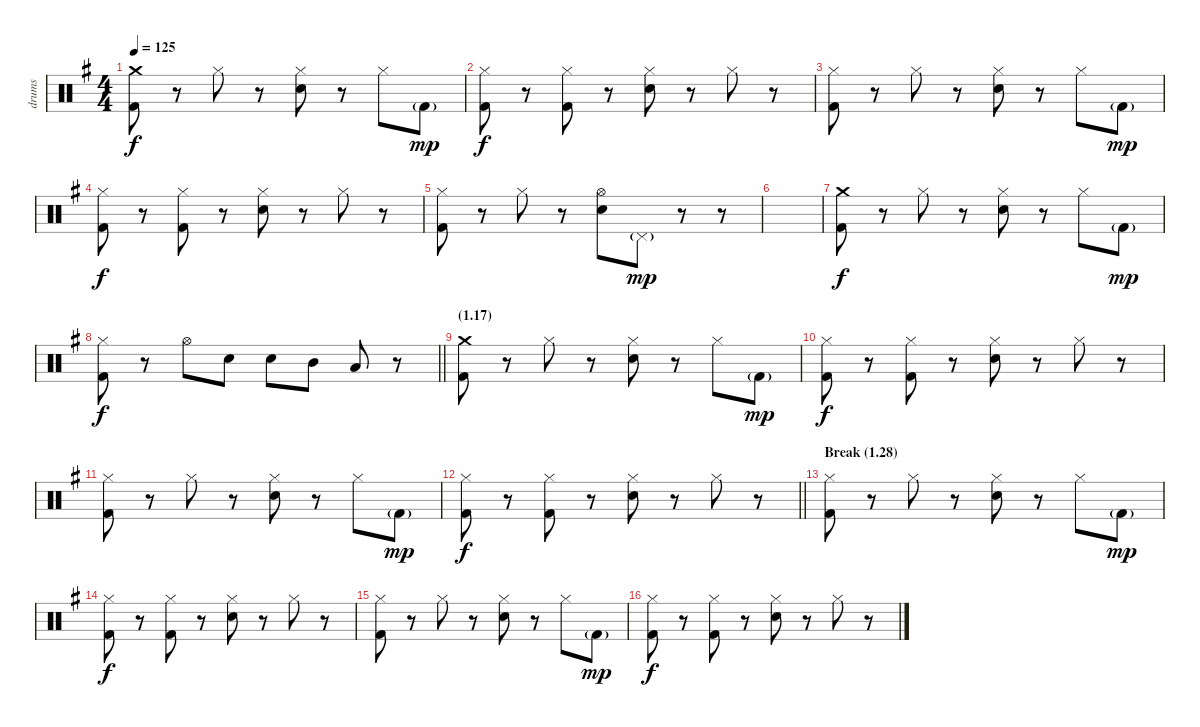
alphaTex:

\track ("drums" "drums") {instrument percussion}
\staff {score}
\articulation defaults
\ts (4 4)
\tempo 125
\clef neutral
\ks g
("Crash medium (hit)" "Kick (hit) 2").8{dy f} r.8 "Hi-Hat (closed)".8 r.8 ("Hi-Hat (closed)" "Electric Snare (hit)").8 r.8 "Hi-Hat (closed)".8 "Kick (hit) 2"{g}.8{dy mp} |
("Hi-Hat (closed)" "Kick (hit) 2").8{dy f} r.8 ("Hi-Hat (closed)" "Kick (hit) 2").8 r.8 ("Hi-Hat (closed)" "Electric Snare (hit)").8 r.8 "Hi-Hat (closed)".8 r.8 |
("Hi-Hat (closed)" "Kick (hit) 2").8 r.8 "Hi-Hat (closed)".8 r.8 ("Hi-Hat (closed)" "Electric Snare (hit)").8 r.8 "Hi-Hat (closed)".8 "Kick (hit) 2"{g}.8{dy mp} |
("Hi-Hat (closed)" "Kick (hit) 2").8{dy f} r.8 ("Hi-Hat (closed)" "Kick (hit) 2").8 r.8 ("Hi-Hat (closed)" "Electric Snare (hit)").8 r.8 "Hi-Hat (closed)".8 r.8 |
("Hi-Hat (closed)" "Kick (hit) 2").8 r.8 "Hi-Hat (closed)".8 r.8 ("Hi-Hat (open)" "Electric Snare (hit)").8 "Pedal Hi-Hat (hit)"{g}.8{dy mp} r.8 r.8 |
|
("Crash medium (hit)" "Kick (hit) 2").8{dy f} r.8 "Hi-Hat (closed)".8 r.8 ("Hi-Hat (closed)" "Electric Snare (hit)").8 r.8 "Hi-Hat (closed)".8 "Kick (hit) 2"{g}.8{dy mp} |
\barLineRight lightlight
("Hi-Hat (closed)" "Kick (hit) 2").8{dy f} r.8 "Hi-Hat (open)".8 "Electric Snare (hit)".8 "Electric Snare (hit)".8 "Mid Tom (hit)".8 "Low Tom (hit)".8 r.8 |
\section ("" "(1.17)")
("Crash medium (hit)" "Kick (hit) 2").8 r.8 "Hi-Hat (closed)".8 r.8 ("Hi-Hat (closed)" "Electric Snare (hit)").8 r.8 "Hi-Hat (closed)".8 "Kick (hit) 2"{g}.8{dy mp} |
("Hi-Hat (closed)" "Kick (hit) 2").8{dy f} r.8 ("Hi-Hat (closed)" "Kick (hit) 2").8 r.8 ("Hi-Hat (closed)" "Electric Snare (hit)").8 r.8 "Hi-Hat (closed)".8 r.8 |
("Hi-Hat (closed)" "Kick (hit) 2").8 r.8 "Hi-Hat (closed)".8 r.8 ("Hi-Hat (closed)" "Electric Snare (hit)").8 r.8 "Hi-Hat (closed)".8 "Kick (hit) 2"{g}.8{dy mp} |
\barLineRight lightlight
("Hi-Hat (closed)" "Kick (hit) 2").8{dy f} r.8 ("Hi-Hat (closed)" "Kick (hit) 2").8 r.8 ("Hi-Hat (closed)" "Electric Snare (hit)").8 r.8 "Hi-Hat (closed)".8 r.8 |
\section ("" "Break (1.28)")
("Hi-Hat (closed)" "Kick (hit) 2").8 r.8 "Hi-Hat (closed)".8 r.8 ("Hi-Hat (closed)" "Electric Snare (hit)").8 r.8 "Hi-Hat (closed)".8 "Kick (hit) 2"{g}.8{dy mp} |
("Hi-Hat (closed)" "Kick (hit) 2").8{dy f} r.8 ("Hi-Hat (closed)" "Kick (hit) 2").8 r.8 ("Hi-Hat (closed)" "Electric Snare (hit)").8 r.8 "Hi-Hat (closed)".8 r.8 |
("Hi-Hat (closed)" "Kick (hit) 2").8 r.8 "Hi-Hat (closed)".8 r.8 ("Hi-Hat (closed)" "Electric Snare (hit)").8 r.8 "Hi-Hat (closed)".8 "Kick (hit) 2"{g}.8{dy mp} |
("Hi-Hat (closed)" "Kick (hit) 2").8{dy f} r.8 ("Hi-Hat (closed)" "Kick (hit) 2").8 r.8 ("Hi-Hat (closed)" "Electric Snare (hit)").8 r.8 "Hi-Hat (closed)".8 r.8
